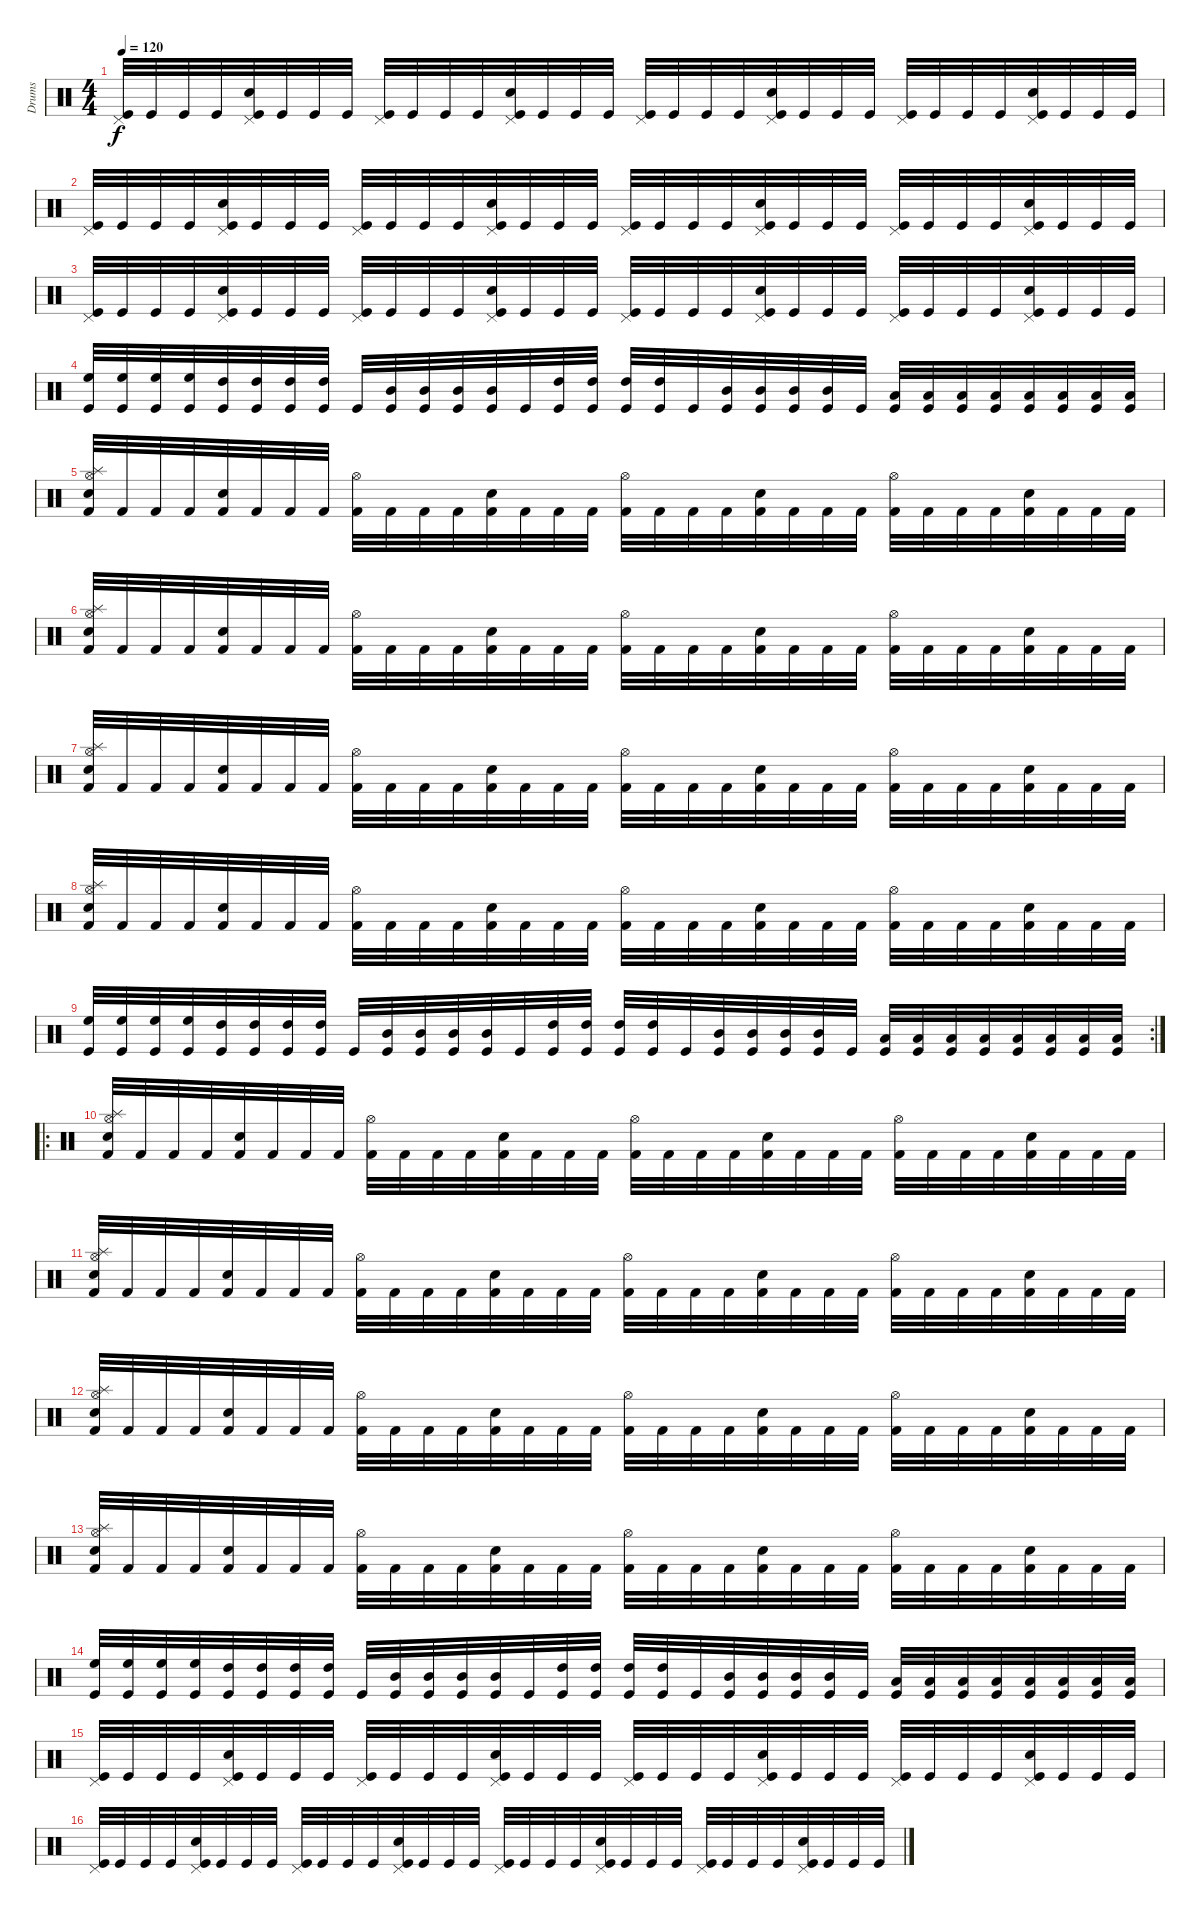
\track ("Drums" "Drums") {instrument percussion}
\staff {score}
\articulation defaults
\ts (4 4)
\tempo 120
\clef neutral
\ks c
("Kick (hit)" "Pedal Hi-Hat (hit)").32{dy f} "Kick (hit)".32 "Kick (hit)".32 "Kick (hit)".32 ("Kick (hit)" "Snare (hit) 2" "Pedal Hi-Hat (hit)").32 "Kick (hit)".32 "Kick (hit)".32 "Kick (hit)".32 ("Kick (hit)" "Pedal Hi-Hat (hit)").32 "Kick (hit)".32 "Kick (hit)".32 "Kick (hit)".32 ("Kick (hit)" "Snare (hit) 2" "Pedal Hi-Hat (hit)").32 "Kick (hit)".32 "Kick (hit)".32 "Kick (hit)".32 ("Kick (hit)" "Pedal Hi-Hat (hit)").32 "Kick (hit)".32 "Kick (hit)".32 "Kick (hit)".32 ("Kick (hit)" "Snare (hit) 2" "Pedal Hi-Hat (hit)").32 "Kick (hit)".32 "Kick (hit)".32 "Kick (hit)".32 ("Kick (hit)" "Pedal Hi-Hat (hit)").32 "Kick (hit)".32 "Kick (hit)".32 "Kick (hit)".32 ("Kick (hit)" "Snare (hit) 2" "Pedal Hi-Hat (hit)").32 "Kick (hit)".32 "Kick (hit)".32 "Kick (hit)".32 |
("Kick (hit)" "Pedal Hi-Hat (hit)").32 "Kick (hit)".32 "Kick (hit)".32 "Kick (hit)".32 ("Kick (hit)" "Snare (hit) 2" "Pedal Hi-Hat (hit)").32 "Kick (hit)".32 "Kick (hit)".32 "Kick (hit)".32 ("Kick (hit)" "Pedal Hi-Hat (hit)").32 "Kick (hit)".32 "Kick (hit)".32 "Kick (hit)".32 ("Kick (hit)" "Snare (hit) 2" "Pedal Hi-Hat (hit)").32 "Kick (hit)".32 "Kick (hit)".32 "Kick (hit)".32 ("Kick (hit)" "Pedal Hi-Hat (hit)").32 "Kick (hit)".32 "Kick (hit)".32 "Kick (hit)".32 ("Kick (hit)" "Snare (hit) 2" "Pedal Hi-Hat (hit)").32 "Kick (hit)".32 "Kick (hit)".32 "Kick (hit)".32 ("Kick (hit)" "Pedal Hi-Hat (hit)").32 "Kick (hit)".32 "Kick (hit)".32 "Kick (hit)".32 ("Kick (hit)" "Snare (hit) 2" "Pedal Hi-Hat (hit)").32 "Kick (hit)".32 "Kick (hit)".32 "Kick (hit)".32 |
("Kick (hit)" "Pedal Hi-Hat (hit)").32 "Kick (hit)".32 "Kick (hit)".32 "Kick (hit)".32 ("Kick (hit)" "Snare (hit) 2" "Pedal Hi-Hat (hit)").32 "Kick (hit)".32 "Kick (hit)".32 "Kick (hit)".32 ("Kick (hit)" "Pedal Hi-Hat (hit)").32 "Kick (hit)".32 "Kick (hit)".32 "Kick (hit)".32 ("Kick (hit)" "Snare (hit) 2" "Pedal Hi-Hat (hit)").32 "Kick (hit)".32 "Kick (hit)".32 "Kick (hit)".32 ("Kick (hit)" "Pedal Hi-Hat (hit)").32 "Kick (hit)".32 "Kick (hit)".32 "Kick (hit)".32 ("Kick (hit)" "Snare (hit) 2" "Pedal Hi-Hat (hit)").32 "Kick (hit)".32 "Kick (hit)".32 "Kick (hit)".32 ("Kick (hit)" "Pedal Hi-Hat (hit)").32 "Kick (hit)".32 "Kick (hit)".32 "Kick (hit)".32 ("Kick (hit)" "Snare (hit) 2" "Pedal Hi-Hat (hit)").32 "Kick (hit)".32 "Kick (hit)".32 "Kick (hit)".32 |
("Kick (hit)" "High Floor Tom (hit)").32 ("Kick (hit)" "High Floor Tom (hit)").32 ("Kick (hit)" "High Floor Tom (hit)").32 ("Kick (hit)" "High Floor Tom (hit)").32 ("Kick (hit)" "High Tom (hit)").32 ("Kick (hit)" "High Tom (hit)").32 ("Kick (hit)" "High Tom (hit)").32 ("Kick (hit)" "High Tom (hit)").32 "Kick (hit)".32 ("Kick (hit)" "Mid Tom (hit)").32 ("Kick (hit)" "Mid Tom (hit)").32 ("Kick (hit)" "Mid Tom (hit)").32 ("Kick (hit)" "Mid Tom (hit)").32 "Kick (hit)".32 ("Kick (hit)" "High Tom (hit)").32 ("Kick (hit)" "High Tom (hit)").32 ("Kick (hit)" "High Tom (hit)").32 ("Kick (hit)" "High Tom (hit)").32 "Kick (hit)".32 ("Kick (hit)" "Mid Tom (hit)").32 ("Kick (hit)" "Mid Tom (hit)").32 ("Kick (hit)" "Mid Tom (hit)").32 ("Kick (hit)" "Mid Tom (hit)").32 "Kick (hit)".32 ("Kick (hit)" "Low Tom (hit)").32 ("Kick (hit)" "Low Tom (hit)").32 ("Kick (hit)" "Low Tom (hit)").32 ("Kick (hit)" "Low Tom (hit)").32 ("Kick (hit)" "Low Tom (hit)").32 ("Kick (hit)" "Low Tom (hit)").32 ("Kick (hit)" "Low Tom (hit)").32 ("Kick (hit)" "Low Tom (hit)").32 |
("Snare (hit) 2" "Splash (hit)" "Hi-Hat (open)" "Kick (hit) 2").32 "Kick (hit) 2".32 "Kick (hit) 2".32 "Kick (hit) 2".32 ("Snare (hit) 2" "Kick (hit) 2").32 "Kick (hit) 2".32 "Kick (hit) 2".32 "Kick (hit) 2".32 ("Hi-Hat (open)" "Kick (hit) 2").32 "Kick (hit) 2".32 "Kick (hit) 2".32 "Kick (hit) 2".32 ("Snare (hit) 2" "Kick (hit) 2").32 "Kick (hit) 2".32 "Kick (hit) 2".32 "Kick (hit) 2".32 ("Hi-Hat (open)" "Kick (hit) 2").32 "Kick (hit) 2".32 "Kick (hit) 2".32 "Kick (hit) 2".32 ("Snare (hit) 2" "Kick (hit) 2").32 "Kick (hit) 2".32 "Kick (hit) 2".32 "Kick (hit) 2".32 ("Hi-Hat (open)" "Kick (hit) 2").32 "Kick (hit) 2".32 "Kick (hit) 2".32 "Kick (hit) 2".32 ("Snare (hit) 2" "Kick (hit) 2").32 "Kick (hit) 2".32 "Kick (hit) 2".32 "Kick (hit) 2".32 |
("Snare (hit) 2" "Splash (hit)" "Hi-Hat (open)" "Kick (hit) 2").32 "Kick (hit) 2".32 "Kick (hit) 2".32 "Kick (hit) 2".32 ("Snare (hit) 2" "Kick (hit) 2").32 "Kick (hit) 2".32 "Kick (hit) 2".32 "Kick (hit) 2".32 ("Hi-Hat (open)" "Kick (hit) 2").32 "Kick (hit) 2".32 "Kick (hit) 2".32 "Kick (hit) 2".32 ("Snare (hit) 2" "Kick (hit) 2").32 "Kick (hit) 2".32 "Kick (hit) 2".32 "Kick (hit) 2".32 ("Hi-Hat (open)" "Kick (hit) 2").32 "Kick (hit) 2".32 "Kick (hit) 2".32 "Kick (hit) 2".32 ("Snare (hit) 2" "Kick (hit) 2").32 "Kick (hit) 2".32 "Kick (hit) 2".32 "Kick (hit) 2".32 ("Hi-Hat (open)" "Kick (hit) 2").32 "Kick (hit) 2".32 "Kick (hit) 2".32 "Kick (hit) 2".32 ("Snare (hit) 2" "Kick (hit) 2").32 "Kick (hit) 2".32 "Kick (hit) 2".32 "Kick (hit) 2".32 |
("Snare (hit) 2" "Splash (hit)" "Hi-Hat (open)" "Kick (hit) 2").32 "Kick (hit) 2".32 "Kick (hit) 2".32 "Kick (hit) 2".32 ("Snare (hit) 2" "Kick (hit) 2").32 "Kick (hit) 2".32 "Kick (hit) 2".32 "Kick (hit) 2".32 ("Hi-Hat (open)" "Kick (hit) 2").32 "Kick (hit) 2".32 "Kick (hit) 2".32 "Kick (hit) 2".32 ("Snare (hit) 2" "Kick (hit) 2").32 "Kick (hit) 2".32 "Kick (hit) 2".32 "Kick (hit) 2".32 ("Hi-Hat (open)" "Kick (hit) 2").32 "Kick (hit) 2".32 "Kick (hit) 2".32 "Kick (hit) 2".32 ("Snare (hit) 2" "Kick (hit) 2").32 "Kick (hit) 2".32 "Kick (hit) 2".32 "Kick (hit) 2".32 ("Hi-Hat (open)" "Kick (hit) 2").32 "Kick (hit) 2".32 "Kick (hit) 2".32 "Kick (hit) 2".32 ("Snare (hit) 2" "Kick (hit) 2").32 "Kick (hit) 2".32 "Kick (hit) 2".32 "Kick (hit) 2".32 |
("Snare (hit) 2" "Splash (hit)" "Hi-Hat (open)" "Kick (hit) 2").32 "Kick (hit) 2".32 "Kick (hit) 2".32 "Kick (hit) 2".32 ("Snare (hit) 2" "Kick (hit) 2").32 "Kick (hit) 2".32 "Kick (hit) 2".32 "Kick (hit) 2".32 ("Hi-Hat (open)" "Kick (hit) 2").32 "Kick (hit) 2".32 "Kick (hit) 2".32 "Kick (hit) 2".32 ("Snare (hit) 2" "Kick (hit) 2").32 "Kick (hit) 2".32 "Kick (hit) 2".32 "Kick (hit) 2".32 ("Hi-Hat (open)" "Kick (hit) 2").32 "Kick (hit) 2".32 "Kick (hit) 2".32 "Kick (hit) 2".32 ("Snare (hit) 2" "Kick (hit) 2").32 "Kick (hit) 2".32 "Kick (hit) 2".32 "Kick (hit) 2".32 ("Hi-Hat (open)" "Kick (hit) 2").32 "Kick (hit) 2".32 "Kick (hit) 2".32 "Kick (hit) 2".32 ("Snare (hit) 2" "Kick (hit) 2").32 "Kick (hit) 2".32 "Kick (hit) 2".32 "Kick (hit) 2".32 |
\rc 2
("Kick (hit)" "High Floor Tom (hit)").32 ("Kick (hit)" "High Floor Tom (hit)").32 ("Kick (hit)" "High Floor Tom (hit)").32 ("Kick (hit)" "High Floor Tom (hit)").32 ("Kick (hit)" "High Tom (hit)").32 ("Kick (hit)" "High Tom (hit)").32 ("Kick (hit)" "High Tom (hit)").32 ("Kick (hit)" "High Tom (hit)").32 "Kick (hit)".32 ("Kick (hit)" "Mid Tom (hit)").32 ("Kick (hit)" "Mid Tom (hit)").32 ("Kick (hit)" "Mid Tom (hit)").32 ("Kick (hit)" "Mid Tom (hit)").32 "Kick (hit)".32 ("Kick (hit)" "High Tom (hit)").32 ("Kick (hit)" "High Tom (hit)").32 ("Kick (hit)" "High Tom (hit)").32 ("Kick (hit)" "High Tom (hit)").32 "Kick (hit)".32 ("Kick (hit)" "Mid Tom (hit)").32 ("Kick (hit)" "Mid Tom (hit)").32 ("Kick (hit)" "Mid Tom (hit)").32 ("Kick (hit)" "Mid Tom (hit)").32 "Kick (hit)".32 ("Kick (hit)" "Low Tom (hit)").32 ("Kick (hit)" "Low Tom (hit)").32 ("Kick (hit)" "Low Tom (hit)").32 ("Kick (hit)" "Low Tom (hit)").32 ("Kick (hit)" "Low Tom (hit)").32 ("Kick (hit)" "Low Tom (hit)").32 ("Kick (hit)" "Low Tom (hit)").32 ("Kick (hit)" "Low Tom (hit)").32 |
\ro
("Snare (hit) 2" "Splash (hit)" "Hi-Hat (open)" "Kick (hit) 2").32 "Kick (hit) 2".32 "Kick (hit) 2".32 "Kick (hit) 2".32 ("Snare (hit) 2" "Kick (hit) 2").32 "Kick (hit) 2".32 "Kick (hit) 2".32 "Kick (hit) 2".32 ("Hi-Hat (open)" "Kick (hit) 2").32 "Kick (hit) 2".32 "Kick (hit) 2".32 "Kick (hit) 2".32 ("Snare (hit) 2" "Kick (hit) 2").32 "Kick (hit) 2".32 "Kick (hit) 2".32 "Kick (hit) 2".32 ("Hi-Hat (open)" "Kick (hit) 2").32 "Kick (hit) 2".32 "Kick (hit) 2".32 "Kick (hit) 2".32 ("Snare (hit) 2" "Kick (hit) 2").32 "Kick (hit) 2".32 "Kick (hit) 2".32 "Kick (hit) 2".32 ("Hi-Hat (open)" "Kick (hit) 2").32 "Kick (hit) 2".32 "Kick (hit) 2".32 "Kick (hit) 2".32 ("Snare (hit) 2" "Kick (hit) 2").32 "Kick (hit) 2".32 "Kick (hit) 2".32 "Kick (hit) 2".32 |
("Snare (hit) 2" "Splash (hit)" "Hi-Hat (open)" "Kick (hit) 2").32 "Kick (hit) 2".32 "Kick (hit) 2".32 "Kick (hit) 2".32 ("Snare (hit) 2" "Kick (hit) 2").32 "Kick (hit) 2".32 "Kick (hit) 2".32 "Kick (hit) 2".32 ("Hi-Hat (open)" "Kick (hit) 2").32 "Kick (hit) 2".32 "Kick (hit) 2".32 "Kick (hit) 2".32 ("Snare (hit) 2" "Kick (hit) 2").32 "Kick (hit) 2".32 "Kick (hit) 2".32 "Kick (hit) 2".32 ("Hi-Hat (open)" "Kick (hit) 2").32 "Kick (hit) 2".32 "Kick (hit) 2".32 "Kick (hit) 2".32 ("Snare (hit) 2" "Kick (hit) 2").32 "Kick (hit) 2".32 "Kick (hit) 2".32 "Kick (hit) 2".32 ("Hi-Hat (open)" "Kick (hit) 2").32 "Kick (hit) 2".32 "Kick (hit) 2".32 "Kick (hit) 2".32 ("Snare (hit) 2" "Kick (hit) 2").32 "Kick (hit) 2".32 "Kick (hit) 2".32 "Kick (hit) 2".32 |
("Snare (hit) 2" "Splash (hit)" "Hi-Hat (open)" "Kick (hit) 2").32 "Kick (hit) 2".32 "Kick (hit) 2".32 "Kick (hit) 2".32 ("Snare (hit) 2" "Kick (hit) 2").32 "Kick (hit) 2".32 "Kick (hit) 2".32 "Kick (hit) 2".32 ("Hi-Hat (open)" "Kick (hit) 2").32 "Kick (hit) 2".32 "Kick (hit) 2".32 "Kick (hit) 2".32 ("Snare (hit) 2" "Kick (hit) 2").32 "Kick (hit) 2".32 "Kick (hit) 2".32 "Kick (hit) 2".32 ("Hi-Hat (open)" "Kick (hit) 2").32 "Kick (hit) 2".32 "Kick (hit) 2".32 "Kick (hit) 2".32 ("Snare (hit) 2" "Kick (hit) 2").32 "Kick (hit) 2".32 "Kick (hit) 2".32 "Kick (hit) 2".32 ("Hi-Hat (open)" "Kick (hit) 2").32 "Kick (hit) 2".32 "Kick (hit) 2".32 "Kick (hit) 2".32 ("Snare (hit) 2" "Kick (hit) 2").32 "Kick (hit) 2".32 "Kick (hit) 2".32 "Kick (hit) 2".32 |
("Snare (hit) 2" "Splash (hit)" "Hi-Hat (open)" "Kick (hit) 2").32 "Kick (hit) 2".32 "Kick (hit) 2".32 "Kick (hit) 2".32 ("Snare (hit) 2" "Kick (hit) 2").32 "Kick (hit) 2".32 "Kick (hit) 2".32 "Kick (hit) 2".32 ("Hi-Hat (open)" "Kick (hit) 2").32 "Kick (hit) 2".32 "Kick (hit) 2".32 "Kick (hit) 2".32 ("Snare (hit) 2" "Kick (hit) 2").32 "Kick (hit) 2".32 "Kick (hit) 2".32 "Kick (hit) 2".32 ("Hi-Hat (open)" "Kick (hit) 2").32 "Kick (hit) 2".32 "Kick (hit) 2".32 "Kick (hit) 2".32 ("Snare (hit) 2" "Kick (hit) 2").32 "Kick (hit) 2".32 "Kick (hit) 2".32 "Kick (hit) 2".32 ("Hi-Hat (open)" "Kick (hit) 2").32 "Kick (hit) 2".32 "Kick (hit) 2".32 "Kick (hit) 2".32 ("Snare (hit) 2" "Kick (hit) 2").32 "Kick (hit) 2".32 "Kick (hit) 2".32 "Kick (hit) 2".32 |
("Kick (hit)" "High Floor Tom (hit)").32 ("Kick (hit)" "High Floor Tom (hit)").32 ("Kick (hit)" "High Floor Tom (hit)").32 ("Kick (hit)" "High Floor Tom (hit)").32 ("Kick (hit)" "High Tom (hit)").32 ("Kick (hit)" "High Tom (hit)").32 ("Kick (hit)" "High Tom (hit)").32 ("Kick (hit)" "High Tom (hit)").32 "Kick (hit)".32 ("Kick (hit)" "Mid Tom (hit)").32 ("Kick (hit)" "Mid Tom (hit)").32 ("Kick (hit)" "Mid Tom (hit)").32 ("Kick (hit)" "Mid Tom (hit)").32 "Kick (hit)".32 ("Kick (hit)" "High Tom (hit)").32 ("Kick (hit)" "High Tom (hit)").32 ("Kick (hit)" "High Tom (hit)").32 ("Kick (hit)" "High Tom (hit)").32 "Kick (hit)".32 ("Kick (hit)" "Mid Tom (hit)").32 ("Kick (hit)" "Mid Tom (hit)").32 ("Kick (hit)" "Mid Tom (hit)").32 ("Kick (hit)" "Mid Tom (hit)").32 "Kick (hit)".32 ("Kick (hit)" "Low Tom (hit)").32 ("Kick (hit)" "Low Tom (hit)").32 ("Kick (hit)" "Low Tom (hit)").32 ("Kick (hit)" "Low Tom (hit)").32 ("Kick (hit)" "Low Tom (hit)").32 ("Kick (hit)" "Low Tom (hit)").32 ("Kick (hit)" "Low Tom (hit)").32 ("Kick (hit)" "Low Tom (hit)").32 |
("Kick (hit)" "Pedal Hi-Hat (hit)").32 "Kick (hit)".32 "Kick (hit)".32 "Kick (hit)".32 ("Kick (hit)" "Snare (hit) 2" "Pedal Hi-Hat (hit)").32 "Kick (hit)".32 "Kick (hit)".32 "Kick (hit)".32 ("Kick (hit)" "Pedal Hi-Hat (hit)").32 "Kick (hit)".32 "Kick (hit)".32 "Kick (hit)".32 ("Kick (hit)" "Snare (hit) 2" "Pedal Hi-Hat (hit)").32 "Kick (hit)".32 "Kick (hit)".32 "Kick (hit)".32 ("Kick (hit)" "Pedal Hi-Hat (hit)").32 "Kick (hit)".32 "Kick (hit)".32 "Kick (hit)".32 ("Kick (hit)" "Snare (hit) 2" "Pedal Hi-Hat (hit)").32 "Kick (hit)".32 "Kick (hit)".32 "Kick (hit)".32 ("Kick (hit)" "Pedal Hi-Hat (hit)").32 "Kick (hit)".32 "Kick (hit)".32 "Kick (hit)".32 ("Kick (hit)" "Snare (hit) 2" "Pedal Hi-Hat (hit)").32 "Kick (hit)".32 "Kick (hit)".32 "Kick (hit)".32 |
("Kick (hit)" "Pedal Hi-Hat (hit)").32 "Kick (hit)".32 "Kick (hit)".32 "Kick (hit)".32 ("Kick (hit)" "Snare (hit) 2" "Pedal Hi-Hat (hit)").32 "Kick (hit)".32 "Kick (hit)".32 "Kick (hit)".32 ("Kick (hit)" "Pedal Hi-Hat (hit)").32 "Kick (hit)".32 "Kick (hit)".32 "Kick (hit)".32 ("Kick (hit)" "Snare (hit) 2" "Pedal Hi-Hat (hit)").32 "Kick (hit)".32 "Kick (hit)".32 "Kick (hit)".32 ("Kick (hit)" "Pedal Hi-Hat (hit)").32 "Kick (hit)".32 "Kick (hit)".32 "Kick (hit)".32 ("Kick (hit)" "Snare (hit) 2" "Pedal Hi-Hat (hit)").32 "Kick (hit)".32 "Kick (hit)".32 "Kick (hit)".32 ("Kick (hit)" "Pedal Hi-Hat (hit)").32 "Kick (hit)".32 "Kick (hit)".32 "Kick (hit)".32 ("Kick (hit)" "Snare (hit) 2" "Pedal Hi-Hat (hit)").32 "Kick (hit)".32 "Kick (hit)".32 "Kick (hit)".32
